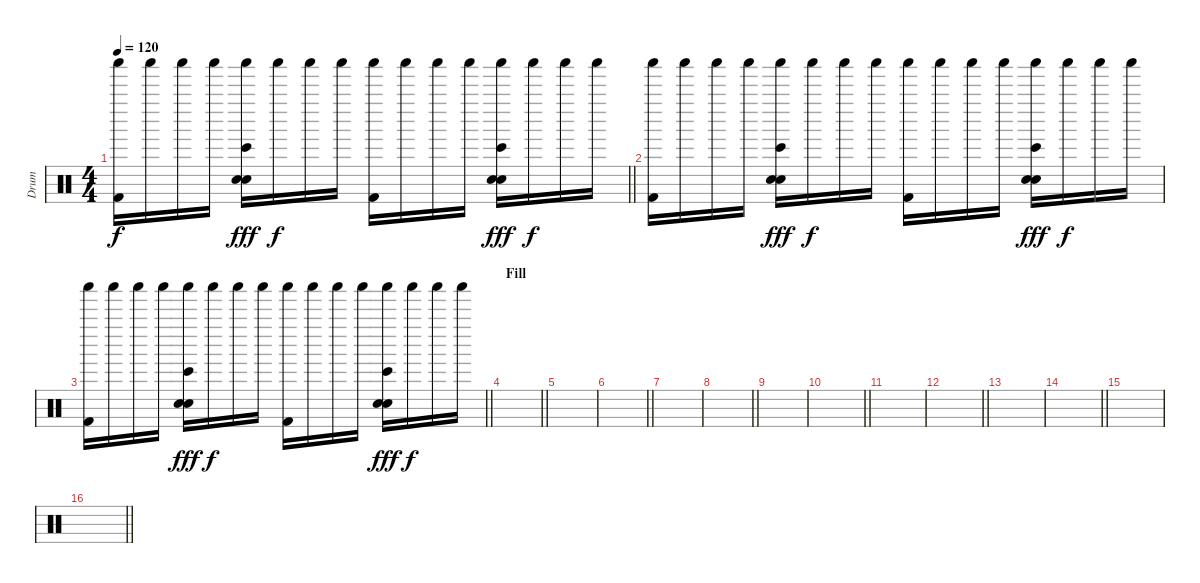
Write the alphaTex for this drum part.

\track ("Drum" "Drum") {instrument percussion}
\staff {score}
\articulation defaults
\ts (4 4)
\tempo 120
\clef neutral
\barLineRight lightlight
\ks c
("Kick (hit) 2" "Shaker (hit)").16{dy f} "Shaker (hit)".16 "Shaker (hit)".16 "Shaker (hit)".16 ("Electric Snare (hit)" "Shaker (hit)" "Hand Clap (hit)" "Bongo High (hit)").16{dy fff} "Shaker (hit)".16{dy f} "Shaker (hit)".16 "Shaker (hit)".16 ("Kick (hit) 2" "Shaker (hit)").16 "Shaker (hit)".16 "Shaker (hit)".16 "Shaker (hit)".16 ("Electric Snare (hit)" "Shaker (hit)" "Hand Clap (hit)" "Bongo High (hit)").16{dy fff} "Shaker (hit)".16{dy f} "Shaker (hit)".16 "Shaker (hit)".16 |
("Kick (hit) 2" "Shaker (hit)").16 "Shaker (hit)".16 "Shaker (hit)".16 "Shaker (hit)".16 ("Electric Snare (hit)" "Shaker (hit)" "Hand Clap (hit)" "Bongo High (hit)").16{dy fff} "Shaker (hit)".16{dy f} "Shaker (hit)".16 "Shaker (hit)".16 ("Kick (hit) 2" "Shaker (hit)").16 "Shaker (hit)".16 "Shaker (hit)".16 "Shaker (hit)".16 ("Electric Snare (hit)" "Shaker (hit)" "Hand Clap (hit)" "Bongo High (hit)").16{dy fff} "Shaker (hit)".16{dy f} "Shaker (hit)".16 "Shaker (hit)".16 |
\barLineRight lightlight
("Kick (hit) 2" "Shaker (hit)").16 "Shaker (hit)".16 "Shaker (hit)".16 "Shaker (hit)".16 ("Electric Snare (hit)" "Shaker (hit)" "Hand Clap (hit)" "Bongo High (hit)").16{dy fff} "Shaker (hit)".16{dy f} "Shaker (hit)".16 "Shaker (hit)".16 ("Kick (hit) 2" "Shaker (hit)").16 "Shaker (hit)".16 "Shaker (hit)".16 "Shaker (hit)".16 ("Electric Snare (hit)" "Shaker (hit)" "Hand Clap (hit)" "Bongo High (hit)").16{dy fff} "Shaker (hit)".16{dy f} "Shaker (hit)".16 "Shaker (hit)".16 |
\section ("" "Fill")
\barLineRight lightlight
|
|
\barLineRight lightlight
|
|
\barLineRight lightlight
|
|
\barLineRight lightlight
|
|
\barLineRight lightlight
|
|
\barLineRight lightlight
|
|
\barLineRight lightlight
